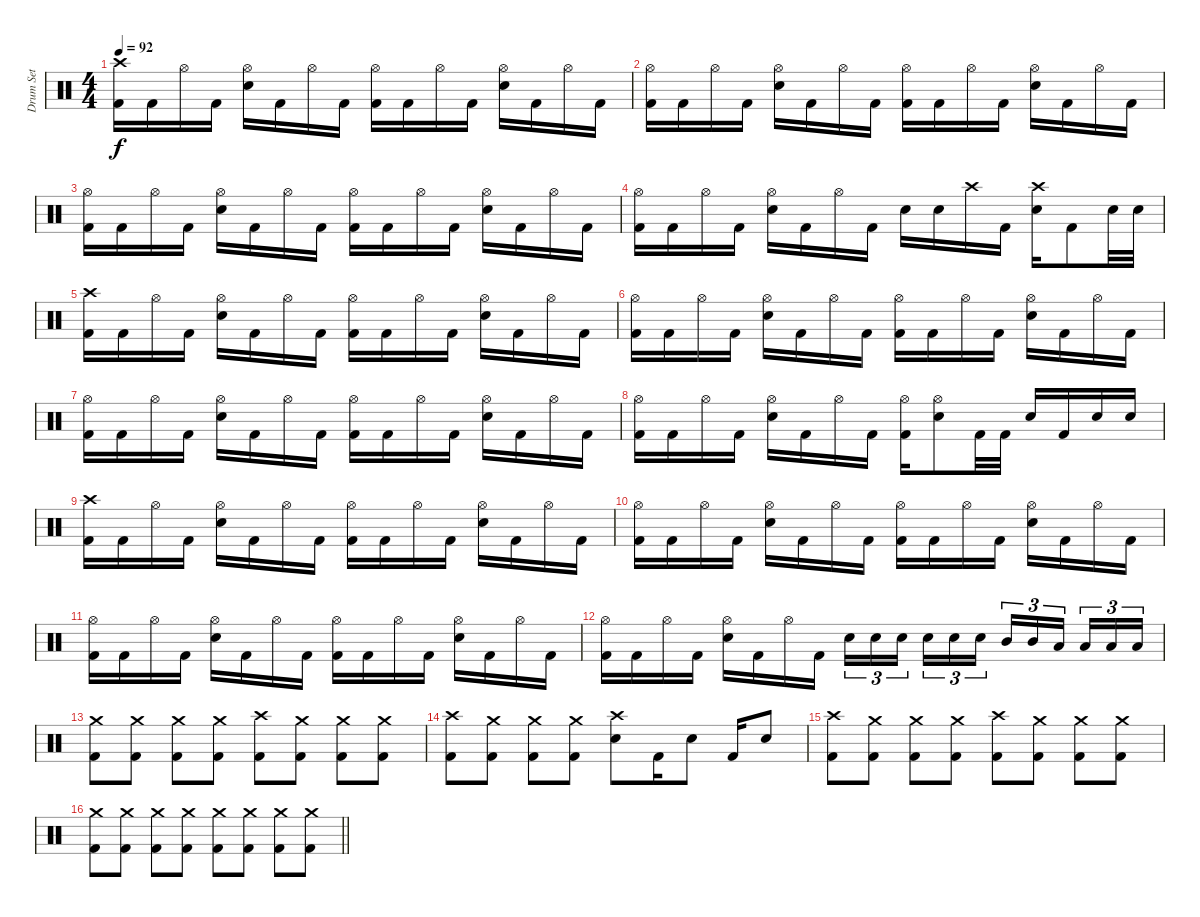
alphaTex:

\track ("Drum Set" "Drum Set") {instrument percussion}
\staff {score}
\articulation defaults
\ts (4 4)
\tempo 92
\clef neutral
\ks c
("Crash high (hit)" "Kick (hit) 2").16{dy f} "Kick (hit) 2".16 "Hi-Hat (open)".16 "Kick (hit) 2".16 ("Hi-Hat (open)" "Electric Snare (hit)").16 "Kick (hit) 2".16 "Hi-Hat (open)".16 "Kick (hit) 2".16 ("Hi-Hat (open)" "Kick (hit) 2").16 "Kick (hit) 2".16 "Hi-Hat (open)".16 "Kick (hit) 2".16 ("Hi-Hat (open)" "Electric Snare (hit)").16 "Kick (hit) 2".16 "Hi-Hat (open)".16 "Kick (hit) 2".16 |
("Hi-Hat (open)" "Kick (hit) 2").16 "Kick (hit) 2".16 "Hi-Hat (open)".16 "Kick (hit) 2".16 ("Hi-Hat (open)" "Electric Snare (hit)").16 "Kick (hit) 2".16 "Hi-Hat (open)".16 "Kick (hit) 2".16 ("Hi-Hat (open)" "Kick (hit) 2").16 "Kick (hit) 2".16 "Hi-Hat (open)".16 "Kick (hit) 2".16 ("Hi-Hat (open)" "Electric Snare (hit)").16 "Kick (hit) 2".16 "Hi-Hat (open)".16 "Kick (hit) 2".16 |
("Hi-Hat (open)" "Kick (hit) 2").16 "Kick (hit) 2".16 "Hi-Hat (open)".16 "Kick (hit) 2".16 ("Hi-Hat (open)" "Electric Snare (hit)").16 "Kick (hit) 2".16 "Hi-Hat (open)".16 "Kick (hit) 2".16 ("Hi-Hat (open)" "Kick (hit) 2").16 "Kick (hit) 2".16 "Hi-Hat (open)".16 "Kick (hit) 2".16 ("Hi-Hat (open)" "Electric Snare (hit)").16 "Kick (hit) 2".16 "Hi-Hat (open)".16 "Kick (hit) 2".16 |
("Hi-Hat (open)" "Kick (hit) 2").16 "Kick (hit) 2".16 "Hi-Hat (open)".16 "Kick (hit) 2".16 ("Hi-Hat (open)" "Electric Snare (hit)").16 "Kick (hit) 2".16 "Hi-Hat (open)".16 "Kick (hit) 2".16 "Electric Snare (hit)".16 "Electric Snare (hit)".16 "Crash high (hit)".16 "Kick (hit) 2".16 ("Electric Snare (hit)" "Crash high (hit)").16 "Kick (hit) 2".8 "Electric Snare (hit)".32 "Electric Snare (hit)".32 |
("Crash high (hit)" "Kick (hit) 2").16 "Kick (hit) 2".16 "Hi-Hat (open)".16 "Kick (hit) 2".16 ("Hi-Hat (open)" "Electric Snare (hit)").16 "Kick (hit) 2".16 "Hi-Hat (open)".16 "Kick (hit) 2".16 ("Hi-Hat (open)" "Kick (hit) 2").16 "Kick (hit) 2".16 "Hi-Hat (open)".16 "Kick (hit) 2".16 ("Hi-Hat (open)" "Electric Snare (hit)").16 "Kick (hit) 2".16 "Hi-Hat (open)".16 "Kick (hit) 2".16 |
("Hi-Hat (open)" "Kick (hit) 2").16 "Kick (hit) 2".16 "Hi-Hat (open)".16 "Kick (hit) 2".16 ("Hi-Hat (open)" "Electric Snare (hit)").16 "Kick (hit) 2".16 "Hi-Hat (open)".16 "Kick (hit) 2".16 ("Hi-Hat (open)" "Kick (hit) 2").16 "Kick (hit) 2".16 "Hi-Hat (open)".16 "Kick (hit) 2".16 ("Hi-Hat (open)" "Electric Snare (hit)").16 "Kick (hit) 2".16 "Hi-Hat (open)".16 "Kick (hit) 2".16 |
("Hi-Hat (open)" "Kick (hit) 2").16 "Kick (hit) 2".16 "Hi-Hat (open)".16 "Kick (hit) 2".16 ("Hi-Hat (open)" "Electric Snare (hit)").16 "Kick (hit) 2".16 "Hi-Hat (open)".16 "Kick (hit) 2".16 ("Hi-Hat (open)" "Kick (hit) 2").16 "Kick (hit) 2".16 "Hi-Hat (open)".16 "Kick (hit) 2".16 ("Hi-Hat (open)" "Electric Snare (hit)").16 "Kick (hit) 2".16 "Hi-Hat (open)".16 "Kick (hit) 2".16 |
("Hi-Hat (open)" "Kick (hit) 2").16 "Kick (hit) 2".16 "Hi-Hat (open)".16 "Kick (hit) 2".16 ("Hi-Hat (open)" "Electric Snare (hit)").16 "Kick (hit) 2".16 "Hi-Hat (open)".16 "Kick (hit) 2".16 ("Hi-Hat (open)" "Kick (hit) 2").16 ("Hi-Hat (open)" "Electric Snare (hit)").8 "Kick (hit) 2".32 "Kick (hit) 2".32 "Electric Snare (hit)".16 "Kick (hit) 2".16 "Electric Snare (hit)".16 "Electric Snare (hit)".16 |
("Crash high (hit)" "Kick (hit) 2").16 "Kick (hit) 2".16 "Hi-Hat (open)".16 "Kick (hit) 2".16 ("Hi-Hat (open)" "Electric Snare (hit)").16 "Kick (hit) 2".16 "Hi-Hat (open)".16 "Kick (hit) 2".16 ("Hi-Hat (open)" "Kick (hit) 2").16 "Kick (hit) 2".16 "Hi-Hat (open)".16 "Kick (hit) 2".16 ("Hi-Hat (open)" "Electric Snare (hit)").16 "Kick (hit) 2".16 "Hi-Hat (open)".16 "Kick (hit) 2".16 |
("Hi-Hat (open)" "Kick (hit) 2").16 "Kick (hit) 2".16 "Hi-Hat (open)".16 "Kick (hit) 2".16 ("Hi-Hat (open)" "Electric Snare (hit)").16 "Kick (hit) 2".16 "Hi-Hat (open)".16 "Kick (hit) 2".16 ("Hi-Hat (open)" "Kick (hit) 2").16 "Kick (hit) 2".16 "Hi-Hat (open)".16 "Kick (hit) 2".16 ("Hi-Hat (open)" "Electric Snare (hit)").16 "Kick (hit) 2".16 "Hi-Hat (open)".16 "Kick (hit) 2".16 |
("Hi-Hat (open)" "Kick (hit) 2").16 "Kick (hit) 2".16 "Hi-Hat (open)".16 "Kick (hit) 2".16 ("Hi-Hat (open)" "Electric Snare (hit)").16 "Kick (hit) 2".16 "Hi-Hat (open)".16 "Kick (hit) 2".16 ("Hi-Hat (open)" "Kick (hit) 2").16 "Kick (hit) 2".16 "Hi-Hat (open)".16 "Kick (hit) 2".16 ("Hi-Hat (open)" "Electric Snare (hit)").16 "Kick (hit) 2".16 "Hi-Hat (open)".16 "Kick (hit) 2".16 |
("Hi-Hat (open)" "Kick (hit) 2").16 "Kick (hit) 2".16 "Hi-Hat (open)".16 "Kick (hit) 2".16 ("Hi-Hat (open)" "Electric Snare (hit)").16 "Kick (hit) 2".16 "Hi-Hat (open)".16 "Kick (hit) 2".16 "Electric Snare (hit)".16{tu (3 2)} "Electric Snare (hit)".16{tu (3 2)} "Electric Snare (hit)".16{tu (3 2) beam splitsecondary} "Electric Snare (hit)".16{tu (3 2)} "Electric Snare (hit)".16{tu (3 2)} "Electric Snare (hit)".16{tu (3 2)} "Mid Tom (hit)".16{tu (3 2)} "Mid Tom (hit)".16{tu (3 2)} "Low Tom (hit)".16{tu (3 2) beam splitsecondary} "Low Tom (hit)".16{tu (3 2)} "Low Floor Tom (hit)".16{tu (3 2)} "Low Floor Tom (hit)".16{tu (3 2)} |
("Kick (hit) 2" "Crash medium (hit)").8 ("Kick (hit) 2" "Crash medium (hit)").8 ("Kick (hit) 2" "Crash medium (hit)").8 ("Kick (hit) 2" "Crash medium (hit)").8 ("Kick (hit) 2" "Crash high (hit)").8 ("Kick (hit) 2" "Crash medium (hit)").8 ("Kick (hit) 2" "Crash medium (hit)").8 ("Kick (hit) 2" "Crash medium (hit)").8 |
("Crash high (hit)" "Kick (hit) 2").8 ("Crash medium (hit)" "Kick (hit) 2").8 ("Crash medium (hit)" "Kick (hit) 2").8 ("Crash medium (hit)" "Kick (hit) 2").8 ("Crash high (hit)" "Electric Snare (hit)").8 "Kick (hit) 2".16 "Electric Snare (hit)".8 "Kick (hit) 2".16 "Electric Snare (hit)".8 |
("Kick (hit) 2" "Crash high (hit)").8 ("Kick (hit) 2" "Crash medium (hit)").8 ("Kick (hit) 2" "Crash medium (hit)").8 ("Kick (hit) 2" "Crash medium (hit)").8 ("Kick (hit) 2" "Crash high (hit)").8 ("Kick (hit) 2" "Crash medium (hit)").8 ("Kick (hit) 2" "Crash medium (hit)").8 ("Kick (hit) 2" "Crash medium (hit)").8 |
\barLineRight lightlight
("Kick (hit) 2" "Crash medium (hit)").8 ("Kick (hit) 2" "Crash medium (hit)").8 ("Kick (hit) 2" "Crash medium (hit)").8 ("Kick (hit) 2" "Crash medium (hit)").8 ("Kick (hit) 2" "Crash medium (hit)").8 ("Kick (hit) 2" "Crash medium (hit)").8 ("Kick (hit) 2" "Crash medium (hit)").8 ("Kick (hit) 2" "Crash medium (hit)").8
